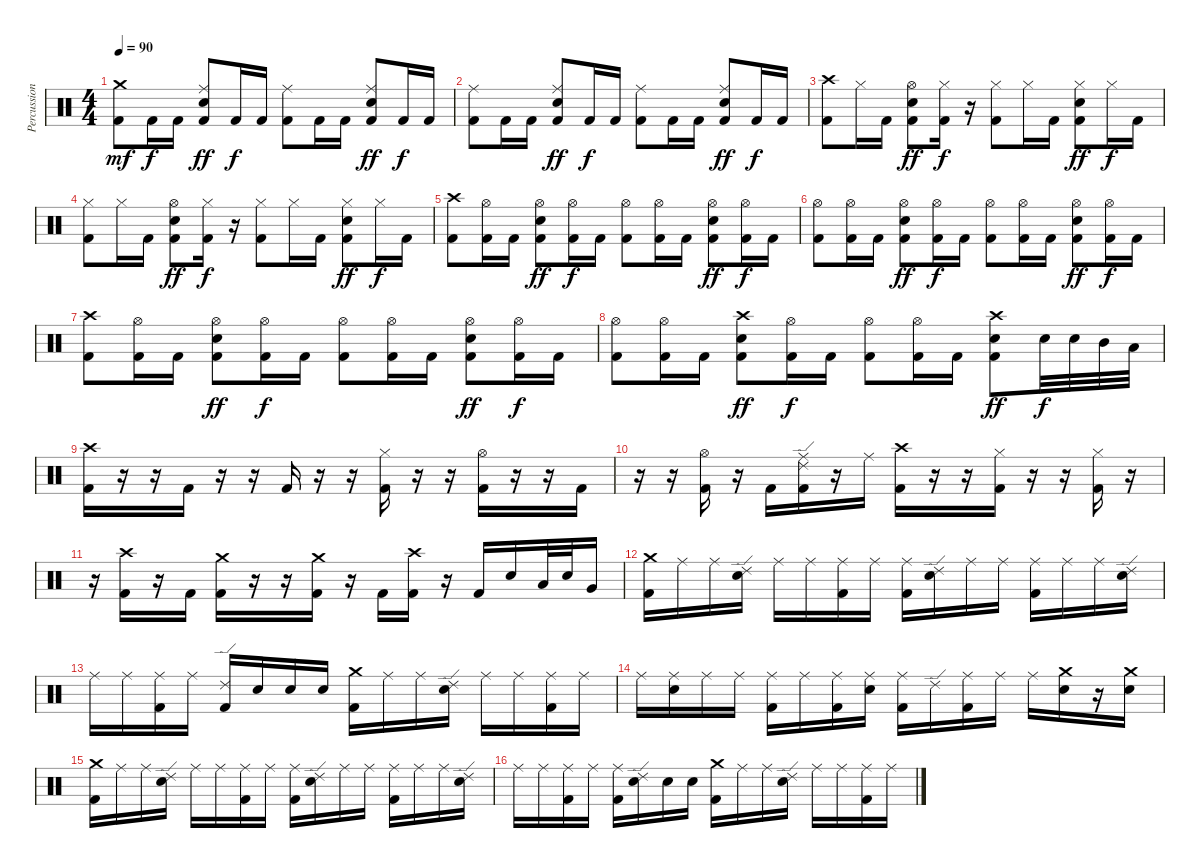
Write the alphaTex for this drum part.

\track ("Percussion" "Percussion") {instrument percussion}
\staff {score}
\articulation defaults
\ts (4 4)
\tempo 90
\clef neutral
\ks c
("Crash medium (hit)" "Kick (hit) 2").8{dy mf} "Kick (hit) 2".16{dy f} "Kick (hit) 2".16 ("Ride (middle)" "Snare (hit) 2" "Kick (hit) 2").8{dy ff} "Kick (hit) 2".16{dy f} "Kick (hit) 2".16 ("Ride (middle)" "Kick (hit) 2").8 "Kick (hit) 2".16 "Kick (hit) 2".16 ("Ride (middle)" "Snare (hit) 2" "Kick (hit) 2").8{dy ff} "Kick (hit) 2".16{dy f} "Kick (hit) 2".16 |
("Ride (middle)" "Kick (hit) 2").8 "Kick (hit) 2".16 "Kick (hit) 2".16 ("Ride (middle)" "Snare (hit) 2" "Kick (hit) 2").8{dy ff} "Kick (hit) 2".16{dy f} "Kick (hit) 2".16 ("Ride (middle)" "Kick (hit) 2").8 "Kick (hit) 2".16 "Kick (hit) 2".16 ("Ride (middle)" "Snare (hit) 2" "Kick (hit) 2").8{dy ff} "Kick (hit) 2".16{dy f} "Kick (hit) 2".16 |
("Crash high (hit)" "Kick (hit) 2").8 "Hi-Hat (closed)".16 "Kick (hit) 2".16 ("Hi-Hat (open)" "Snare (hit) 2" "Kick (hit) 2").8{dy ff} ("Hi-Hat (closed)" "Kick (hit) 2").16{dy f} r.16 ("Hi-Hat (closed)" "Kick (hit) 2").8 "Hi-Hat (closed)".16 "Kick (hit) 2".16 ("Hi-Hat (closed)" "Snare (hit) 2" "Kick (hit) 2").8{dy ff} "Hi-Hat (closed)".16{dy f} "Kick (hit) 2".16 |
("Hi-Hat (closed)" "Kick (hit) 2").8 "Hi-Hat (closed)".16 "Kick (hit) 2".16 ("Hi-Hat (open)" "Snare (hit) 2" "Kick (hit) 2").8{dy ff} ("Hi-Hat (closed)" "Kick (hit) 2").16{dy f} r.16 ("Hi-Hat (closed)" "Kick (hit) 2").8 "Hi-Hat (closed)".16 "Kick (hit) 2".16 ("Hi-Hat (closed)" "Snare (hit) 2" "Kick (hit) 2").8{dy ff} "Hi-Hat (closed)".16{dy f} "Kick (hit) 2".16 |
("Crash high (hit)" "Kick (hit) 2").8 ("Hi-Hat (open)" "Kick (hit) 2").16 "Kick (hit) 2".16 ("Hi-Hat (open)" "Snare (hit) 2" "Kick (hit) 2").8{dy ff} ("Hi-Hat (open)" "Kick (hit) 2").16{dy f} "Kick (hit) 2".16 ("Hi-Hat (open)" "Kick (hit) 2").8 ("Hi-Hat (open)" "Kick (hit) 2").16 "Kick (hit) 2".16 ("Hi-Hat (open)" "Snare (hit) 2" "Kick (hit) 2").8{dy ff} ("Hi-Hat (open)" "Kick (hit) 2").16{dy f} "Kick (hit) 2".16 |
("Hi-Hat (open)" "Kick (hit) 2").8 ("Hi-Hat (open)" "Kick (hit) 2").16 "Kick (hit) 2".16 ("Hi-Hat (open)" "Snare (hit) 2" "Kick (hit) 2").8{dy ff} ("Hi-Hat (open)" "Kick (hit) 2").16{dy f} "Kick (hit) 2".16 ("Hi-Hat (open)" "Kick (hit) 2").8 ("Hi-Hat (open)" "Kick (hit) 2").16 "Kick (hit) 2".16 ("Hi-Hat (open)" "Snare (hit) 2" "Kick (hit) 2").8{dy ff} ("Hi-Hat (open)" "Kick (hit) 2").16{dy f} "Kick (hit) 2".16 |
("Crash high (hit)" "Kick (hit) 2").8 ("Hi-Hat (open)" "Kick (hit) 2").16 "Kick (hit) 2".16 ("Hi-Hat (open)" "Snare (hit) 2" "Kick (hit) 2").8{dy ff} ("Hi-Hat (open)" "Kick (hit) 2").16{dy f} "Kick (hit) 2".16 ("Hi-Hat (open)" "Kick (hit) 2").8 ("Hi-Hat (open)" "Kick (hit) 2").16 "Kick (hit) 2".16 ("Hi-Hat (open)" "Snare (hit) 2" "Kick (hit) 2").8{dy ff} ("Hi-Hat (open)" "Kick (hit) 2").16{dy f} "Kick (hit) 2".16 |
("Hi-Hat (open)" "Kick (hit) 2").8 ("Hi-Hat (open)" "Kick (hit) 2").16 "Kick (hit) 2".16 ("Crash high (hit)" "Snare (hit) 2" "Kick (hit) 2").8{dy ff} ("Hi-Hat (open)" "Kick (hit) 2").16{dy f} "Kick (hit) 2".16 ("Hi-Hat (open)" "Kick (hit) 2").8 ("Hi-Hat (open)" "Kick (hit) 2").16 "Kick (hit) 2".16 ("Crash high (hit)" "Snare (hit) 2" "Kick (hit) 2").8{dy ff} "Snare (hit) 2".32{dy f} "Snare (hit) 2".32 "Mid Tom (hit)".32 "Low Tom (hit)".32 |
("Crash high (hit)" "Kick (hit) 2").16 r.16 r.16 "Kick (hit) 2".16 r.16 r.16 "Kick (hit) 2".16 r.16 r.16 ("Hi-Hat (closed)" "Kick (hit) 2").16 r.16 r.16 ("Hi-Hat (open)" "Kick (hit) 2").16 r.16 r.16 "Kick (hit) 2".16 |
r.16 r.16 ("Hi-Hat (open)" "Kick (hit) 2").16 r.16 "Kick (hit) 2".16 ("Ride (middle)" "Ride (edge) 2" "Kick (hit) 2").16 r.16 "Ride (middle)".16 ("Crash high (hit)" "Kick (hit) 2").16 r.16 r.16 ("Hi-Hat (closed)" "Kick (hit) 2").16 r.16 r.16 ("Hi-Hat (closed)" "Kick (hit) 2").16 r.16 |
r.16 ("Crash high (hit)" "Kick (hit) 2").16 r.16 "Kick (hit) 2".16 ("Crash medium (hit)" "Kick (hit) 2").16 r.16 r.16 ("Crash medium (hit)" "Kick (hit) 2").16 r.16 "Kick (hit) 2".16 ("Crash high (hit)" "Kick (hit) 2").16 r.16 "Kick (hit) 2".16 "Snare (hit) 2".16 "Low Tom (hit)".32 "Snare (hit) 2".32 "Very Low Tom (hit)".16 |
("Crash medium (hit)" "Kick (hit) 2").16 "Ride (middle)".16 "Ride (middle)".16 ("Ride (edge) 2" "Snare (hit) 2").16 "Ride (middle)".16 "Ride (middle)".16 ("Ride (middle)" "Kick (hit) 2").16 "Ride (middle)".16 ("Ride (middle)" "Kick (hit) 2").16 ("Ride (edge) 2" "Snare (hit) 2").16 "Ride (middle)".16 "Ride (middle)".16 ("Ride (middle)" "Kick (hit) 2").16 "Ride (middle)".16 "Ride (middle)".16 ("Ride (edge) 2" "Snare (hit) 2").16 |
"Ride (middle)".16 "Ride (middle)".16 ("Ride (middle)" "Kick (hit) 2").16 "Ride (middle)".16 ("Ride (edge) 2" "Kick (hit) 2").16 "Snare (hit) 2".16 "Snare (hit) 2".16 "Snare (hit) 2".16 ("Crash medium (hit)" "Kick (hit) 2").16 "Ride (middle)".16 "Ride (middle)".16 ("Ride (edge) 2" "Snare (hit) 2").16 "Ride (middle)".16 "Ride (middle)".16 ("Ride (middle)" "Kick (hit) 2").16 "Ride (middle)".16 |
"Ride (middle)".16 ("Ride (middle)" "Snare (hit) 2").16 "Ride (middle)".16 "Ride (middle)".16 ("Ride (middle)" "Kick (hit) 2").16 "Ride (middle)".16 ("Ride (middle)" "Kick (hit) 2").16 ("Ride (middle)" "Snare (hit) 2").16 ("Ride (middle)" "Kick (hit) 2").16 "Ride (edge) 2".16 ("Ride (middle)" "Kick (hit) 2").16 "Ride (middle)".16 "Ride (middle)".16 ("Crash medium (hit)" "Snare (hit) 2").16 r.16 ("Crash medium (hit)" "Snare (hit) 2").16 |
("Crash medium (hit)" "Kick (hit) 2").16 "Ride (middle)".16 "Ride (middle)".16 ("Ride (edge) 2" "Snare (hit) 2").16 "Ride (middle)".16 "Ride (middle)".16 ("Ride (middle)" "Kick (hit) 2").16 "Ride (middle)".16 ("Ride (middle)" "Kick (hit) 2").16 ("Ride (edge) 2" "Snare (hit) 2").16 "Ride (middle)".16 "Ride (middle)".16 ("Ride (middle)" "Kick (hit) 2").16 "Ride (middle)".16 "Ride (middle)".16 ("Ride (edge) 2" "Snare (hit) 2").16 |
"Ride (middle)".16 "Ride (middle)".16 ("Ride (middle)" "Kick (hit) 2").16 "Ride (middle)".16 ("Ride (middle)" "Kick (hit) 2").16 ("Ride (edge) 2" "Snare (hit) 2").16 "Snare (hit) 2".16 "Snare (hit) 2".16 ("Crash medium (hit)" "Kick (hit) 2").16 "Ride (middle)".16 "Ride (middle)".16 ("Ride (edge) 2" "Snare (hit) 2").16 "Ride (middle)".16 "Ride (middle)".16 ("Ride (middle)" "Kick (hit) 2").16 "Ride (middle)".16
